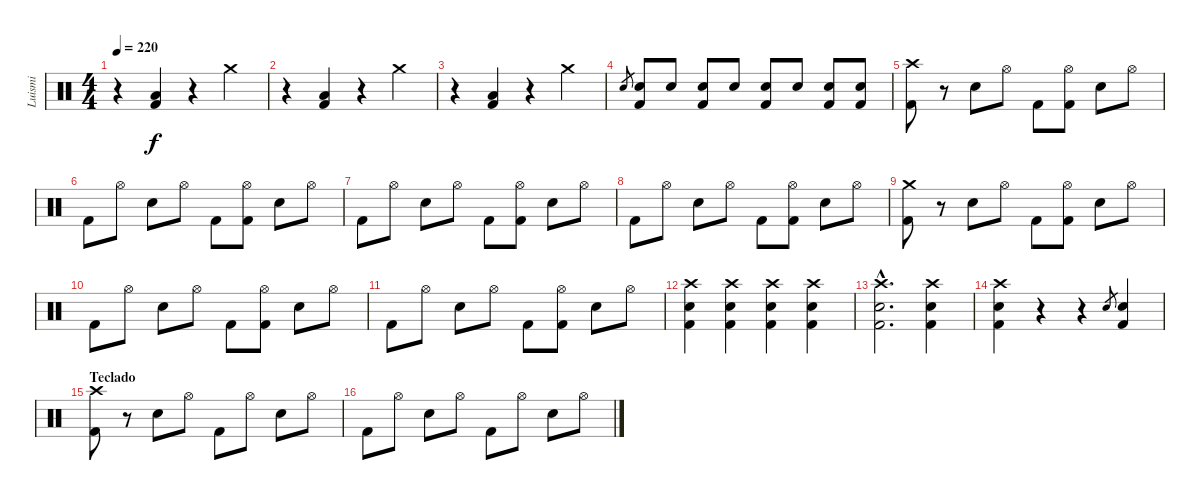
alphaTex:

\track ("Luismi" "Luismi") {instrument percussion}
\staff {score}
\articulation defaults
\ts (4 4)
\tempo 220
\clef neutral
\ks c
r.4{dy f} ("Low Floor Tom (hit)" "Kick (hit) 2").4 r.4 "Crash medium (hit)".4 |
r.4 ("Low Floor Tom (hit)" "Kick (hit) 2").4 r.4 "Crash medium (hit)".4 |
r.4 ("Low Floor Tom (hit)" "Kick (hit) 2").4 r.4 "Crash medium (hit)".4 |
"Snare (hit) 2".8{gr} ("Snare (hit) 2" "Kick (hit) 2").8 "Snare (hit) 2".8 ("Snare (hit) 2" "Kick (hit) 2").8 "Snare (hit) 2".8 ("Snare (hit) 2" "Kick (hit) 2").8 "Snare (hit) 2".8 ("Snare (hit) 2" "Kick (hit) 2").8 ("Snare (hit) 2" "Kick (hit) 2").8 |
("Crash high (hit)" "Kick (hit) 2").8 r.8 "Snare (hit) 2".8 "Hi-Hat (open)".8 "Kick (hit) 2".8 ("Hi-Hat (open)" "Kick (hit) 2").8 "Snare (hit) 2".8 "Hi-Hat (open)".8 |
"Kick (hit) 2".8 "Hi-Hat (open)".8 "Snare (hit) 2".8 "Hi-Hat (open)".8 "Kick (hit) 2".8 ("Hi-Hat (open)" "Kick (hit) 2").8 "Snare (hit) 2".8 "Hi-Hat (open)".8 |
"Kick (hit) 2".8 "Hi-Hat (open)".8 "Snare (hit) 2".8 "Hi-Hat (open)".8 "Kick (hit) 2".8 ("Hi-Hat (open)" "Kick (hit) 2").8 "Snare (hit) 2".8 "Hi-Hat (open)".8 |
"Kick (hit) 2".8 "Hi-Hat (open)".8 "Snare (hit) 2".8 "Hi-Hat (open)".8 "Kick (hit) 2".8 ("Hi-Hat (open)" "Kick (hit) 2").8 "Snare (hit) 2".8 "Hi-Hat (open)".8 |
("Crash medium (hit)" "Kick (hit) 2").8 r.8 "Snare (hit) 2".8 "Hi-Hat (open)".8 "Kick (hit) 2".8 ("Hi-Hat (open)" "Kick (hit) 2").8 "Snare (hit) 2".8 "Hi-Hat (open)".8 |
"Kick (hit) 2".8 "Hi-Hat (open)".8 "Snare (hit) 2".8 "Hi-Hat (open)".8 "Kick (hit) 2".8 ("Hi-Hat (open)" "Kick (hit) 2").8 "Snare (hit) 2".8 "Hi-Hat (open)".8 |
"Kick (hit) 2".8 "Hi-Hat (open)".8 "Snare (hit) 2".8 "Hi-Hat (open)".8 "Kick (hit) 2".8 ("Hi-Hat (open)" "Kick (hit) 2").8 "Snare (hit) 2".8 "Hi-Hat (open)".8 |
("Crash high (hit)" "Snare (hit) 2" "Kick (hit) 2").4 ("Crash high (hit)" "Snare (hit) 2" "Kick (hit) 2").4 ("Crash high (hit)" "Snare (hit) 2" "Kick (hit) 2").4 ("Crash high (hit)" "Snare (hit) 2" "Kick (hit) 2").4 |
("Crash high (hit)"{hac} "Snare (hit) 2"{hac} "Kick (hit) 2"{hac}).2{d} ("Crash high (hit)" "Snare (hit) 2" "Kick (hit) 2").4 |
("Crash high (hit)" "Snare (hit) 2" "Kick (hit) 2").4 r.4 r.4 "Snare (hit) 2".8{gr} ("Snare (hit) 2" "Kick (hit) 2").4 |
\section ("" "Teclado")
("Crash high (hit)" "Kick (hit) 2").8 r.8 "Snare (hit) 2".8 "Hi-Hat (open)".8 "Kick (hit) 2".8 "Hi-Hat (open)".8 "Snare (hit) 2".8 "Hi-Hat (open)".8 |
"Kick (hit) 2".8 "Hi-Hat (open)".8 "Snare (hit) 2".8 "Hi-Hat (open)".8 "Kick (hit) 2".8 "Hi-Hat (open)".8 "Snare (hit) 2".8 "Hi-Hat (open)".8
